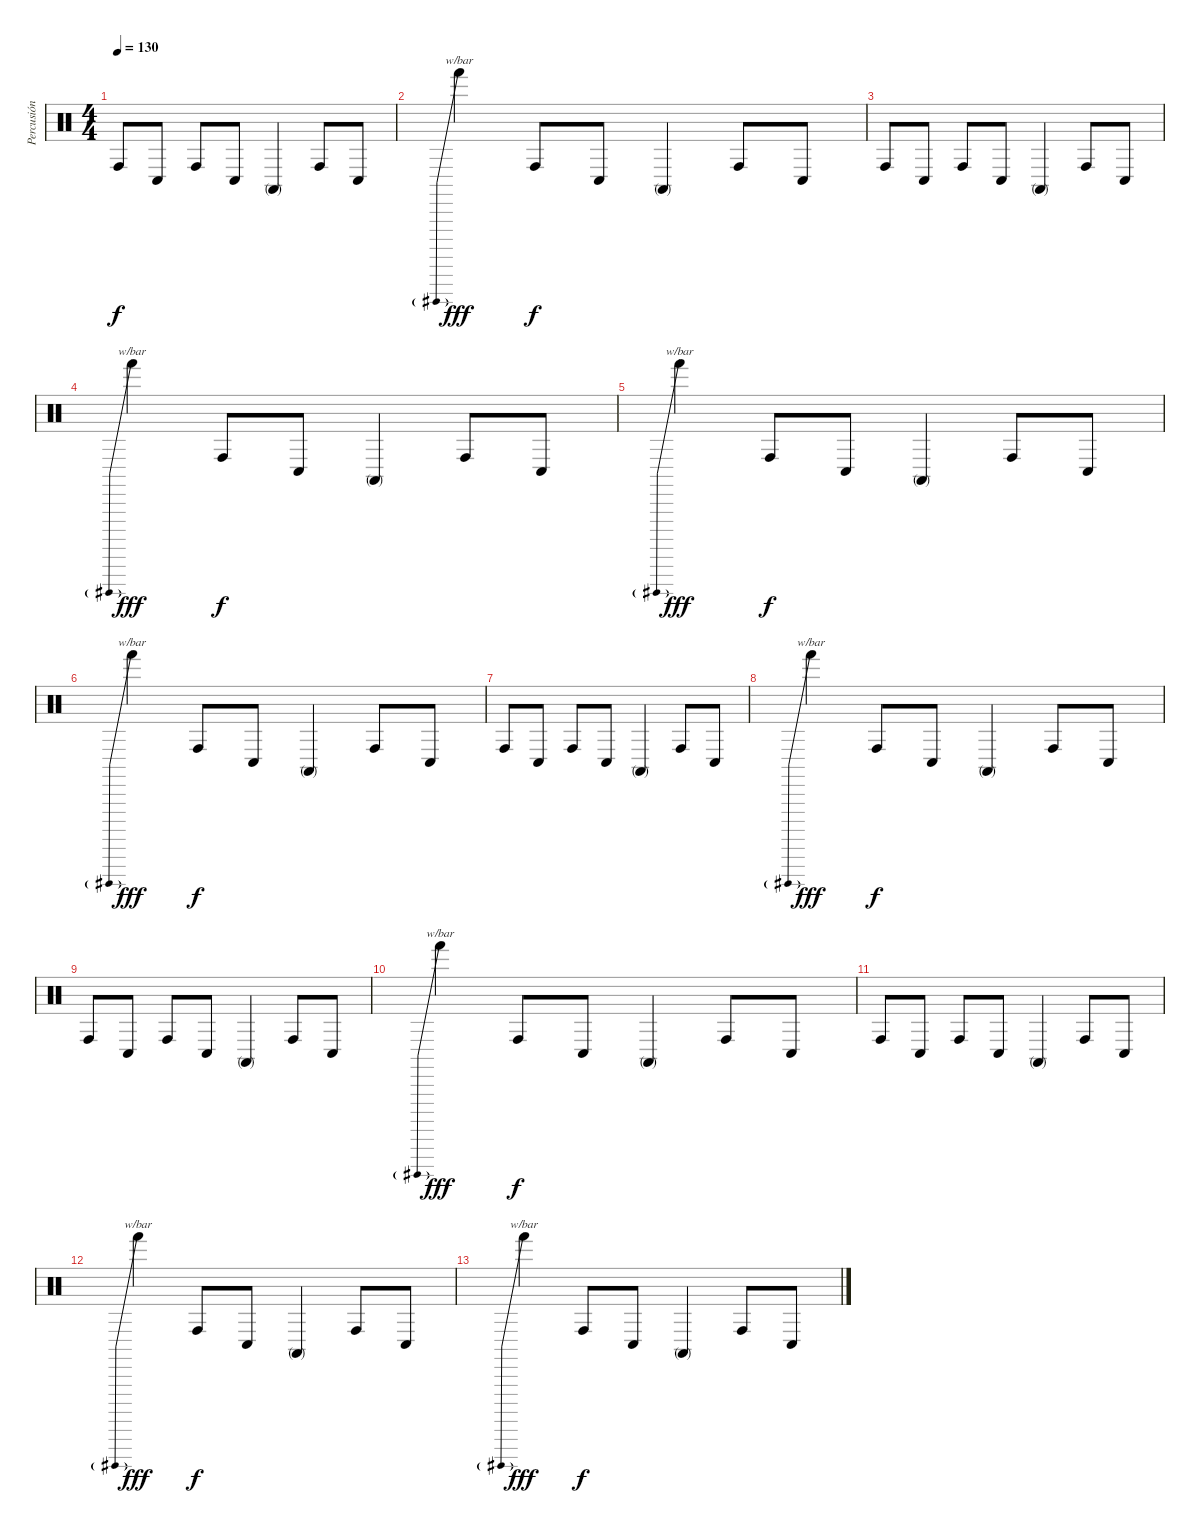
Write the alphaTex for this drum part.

\track ("Percusión" "Percusión") {instrument percussion}
\staff {score}
\articulation defaults
\ts (4 4)
\tempo 130
\clef neutral
\ks c "Conga high (hit)".8{dy f} "Conga low (hit)".8 "Conga high (hit)".8 "Conga low (hit)".8 "Conga high (mute)".4 "Conga high (hit)".8 "Conga low (hit)".8
|
"Hand (hit)".4{tbe (predive default 0 -8 60 -8) dy fff} "Conga high (hit)".8{dy f} "Conga low (hit)".8 "Conga high (mute)".4 "Conga high (hit)".8 "Conga low (hit)".8 |
"Conga high (hit)".8 "Conga low (hit)".8 "Conga high (hit)".8 "Conga low (hit)".8 "Conga high (mute)".4 "Conga high (hit)".8 "Conga low (hit)".8 |
"Hand (hit)".4{tbe (predive default 0 -8 60 -8) dy fff} "Conga high (hit)".8{dy f} "Conga low (hit)".8 "Conga high (mute)".4 "Conga high (hit)".8 "Conga low (hit)".8 |
"Hand (hit)".4{tbe (predive default 0 -8 60 -8) dy fff} "Conga high (hit)".8{dy f} "Conga low (hit)".8 "Conga high (mute)".4 "Conga high (hit)".8 "Conga low (hit)".8 |
"Hand (hit)".4{tbe (predive default 0 -8 60 -8) dy fff} "Conga high (hit)".8{dy f} "Conga low (hit)".8 "Conga high (mute)".4 "Conga high (hit)".8 "Conga low (hit)".8 |
"Conga high (hit)".8 "Conga low (hit)".8 "Conga high (hit)".8 "Conga low (hit)".8 "Conga high (mute)".4 "Conga high (hit)".8 "Conga low (hit)".8 |
"Hand (hit)".4{tbe (predive default 0 -8 60 -8) dy fff} "Conga high (hit)".8{dy f} "Conga low (hit)".8 "Conga high (mute)".4 "Conga high (hit)".8 "Conga low (hit)".8 |
"Conga high (hit)".8 "Conga low (hit)".8 "Conga high (hit)".8 "Conga low (hit)".8 "Conga high (mute)".4 "Conga high (hit)".8 "Conga low (hit)".8 |
"Hand (hit)".4{tbe (predive default 0 -8 60 -8) dy fff} "Conga high (hit)".8{dy f} "Conga low (hit)".8 "Conga high (mute)".4 "Conga high (hit)".8 "Conga low (hit)".8 |
"Conga high (hit)".8 "Conga low (hit)".8 "Conga high (hit)".8 "Conga low (hit)".8 "Conga high (mute)".4 "Conga high (hit)".8 "Conga low (hit)".8 |
"Hand (hit)".4{tbe (predive default 0 -8 60 -8) dy fff} "Conga high (hit)".8{dy f} "Conga low (hit)".8 "Conga high (mute)".4 "Conga high (hit)".8 "Conga low (hit)".8 |
"Hand (hit)".4{tbe (predive default 0 -8 60 -8) dy fff} "Conga high (hit)".8{dy f} "Conga low (hit)".8 "Conga high (mute)".4 "Conga high (hit)".8 "Conga low (hit)".8
